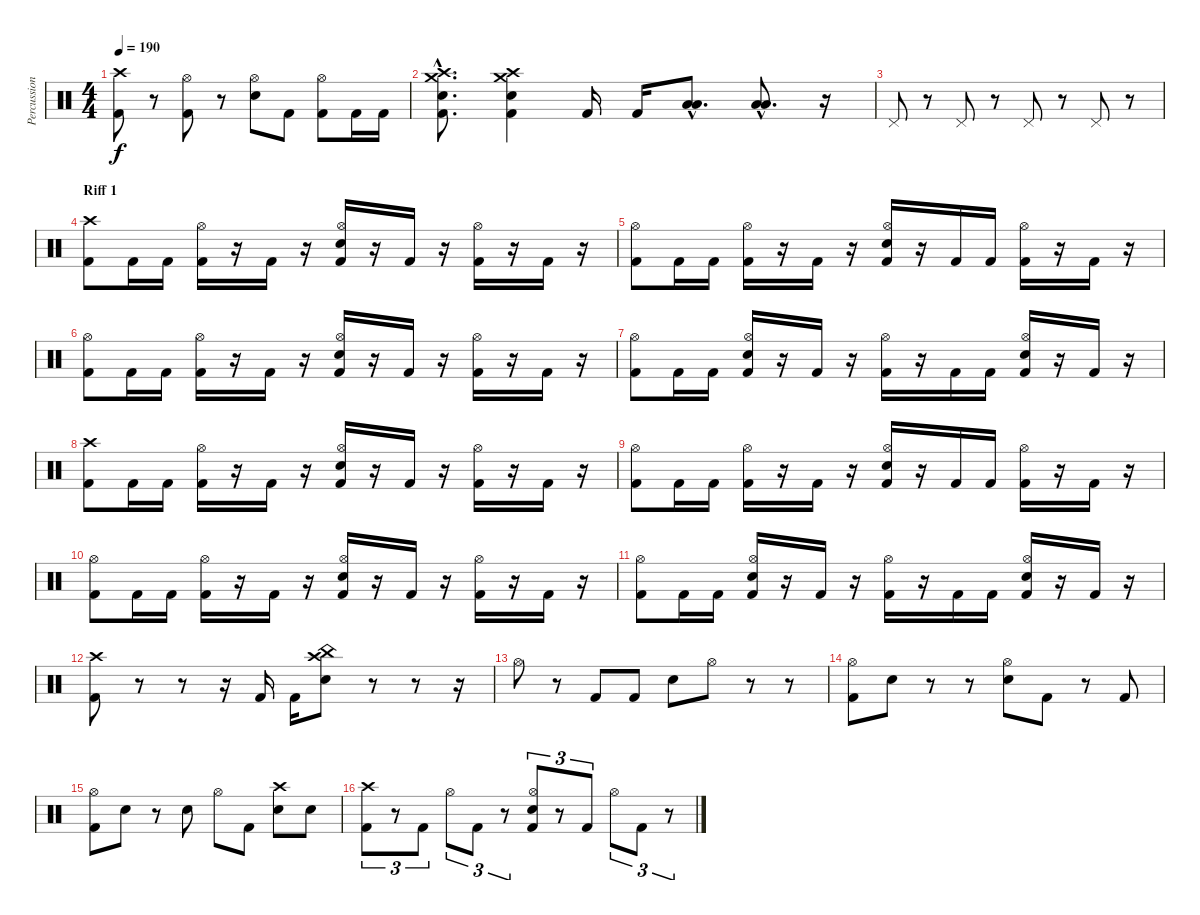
\track ("Percussion" "Percussion") {instrument percussion}
\staff {score}
\articulation defaults
\ts (4 4)
\tempo 190
\clef neutral
\ks c
("Crash high (hit)" "Kick (hit) 2").8{dy f} r.8 ("Hi-Hat (open)" "Kick (hit) 2").8 r.8 ("Hi-Hat (open)" "Electric Snare (hit)").8 "Kick (hit) 2".8 ("Hi-Hat (open)" "Kick (hit) 2").8 "Kick (hit) 2".16 "Kick (hit) 2".16 |
("Crash medium (hit)"{hac} "Crash high (hit)"{hac} "Electric Snare (hit)"{hac} "Kick (hit) 2"{hac}).8{d} ("Crash medium (hit)" "Crash high (hit)" "Electric Snare (hit)" "Kick (hit) 2").4 "Kick (hit) 2".16 "Kick (hit) 2".16 ("Low Tom (hit)"{hac} "Low Floor Tom (hit)"{hac}).8{d} ("Low Tom (hit)"{hac} "Low Floor Tom (hit)"{hac}).8{d} r.16 |
"Pedal Hi-Hat (hit)".8 r.8 "Pedal Hi-Hat (hit)".8 r.8 "Pedal Hi-Hat (hit)".8 r.8 "Pedal Hi-Hat (hit)".8 r.8 |
\section ("" "Riff 1")
("Crash high (hit)" "Kick (hit) 2").8 "Kick (hit) 2".16 "Kick (hit) 2".16 ("Hi-Hat (open)" "Kick (hit) 2").16 r.16 "Kick (hit) 2".16 r.16 ("Hi-Hat (open)" "Electric Snare (hit)" "Kick (hit) 2").16 r.16 "Kick (hit) 2".16 r.16 ("Hi-Hat (open)" "Kick (hit) 2").16 r.16 "Kick (hit) 2".16 r.16 |
("Hi-Hat (open)" "Kick (hit) 2").8 "Kick (hit) 2".16 "Kick (hit) 2".16 ("Hi-Hat (open)" "Kick (hit) 2").16 r.16 "Kick (hit) 2".16 r.16 ("Hi-Hat (open)" "Electric Snare (hit)" "Kick (hit) 2").16 r.16 "Kick (hit) 2".16 "Kick (hit) 2".16 ("Hi-Hat (open)" "Kick (hit) 2").16 r.16 "Kick (hit) 2".16 r.16 |
("Hi-Hat (open)" "Kick (hit) 2").8 "Kick (hit) 2".16 "Kick (hit) 2".16 ("Hi-Hat (open)" "Kick (hit) 2").16 r.16 "Kick (hit) 2".16 r.16 ("Hi-Hat (open)" "Electric Snare (hit)" "Kick (hit) 2").16 r.16 "Kick (hit) 2".16 r.16 ("Hi-Hat (open)" "Kick (hit) 2").16 r.16 "Kick (hit) 2".16 r.16 |
("Hi-Hat (open)" "Kick (hit) 2").8 "Kick (hit) 2".16 "Kick (hit) 2".16 ("Hi-Hat (open)" "Electric Snare (hit)" "Kick (hit) 2").16 r.16 "Kick (hit) 2".16 r.16 ("Hi-Hat (open)" "Kick (hit) 2").16 r.16 "Kick (hit) 2".16 "Kick (hit) 2".16 ("Hi-Hat (open)" "Electric Snare (hit)" "Kick (hit) 2").16 r.16 "Kick (hit) 2".16 r.16 |
("Crash high (hit)" "Kick (hit) 2").8 "Kick (hit) 2".16 "Kick (hit) 2".16 ("Hi-Hat (open)" "Kick (hit) 2").16 r.16 "Kick (hit) 2".16 r.16 ("Hi-Hat (open)" "Electric Snare (hit)" "Kick (hit) 2").16 r.16 "Kick (hit) 2".16 r.16 ("Hi-Hat (open)" "Kick (hit) 2").16 r.16 "Kick (hit) 2".16 r.16 |
("Hi-Hat (open)" "Kick (hit) 2").8 "Kick (hit) 2".16 "Kick (hit) 2".16 ("Hi-Hat (open)" "Kick (hit) 2").16 r.16 "Kick (hit) 2".16 r.16 ("Hi-Hat (open)" "Electric Snare (hit)" "Kick (hit) 2").16 r.16 "Kick (hit) 2".16 "Kick (hit) 2".16 ("Hi-Hat (open)" "Kick (hit) 2").16 r.16 "Kick (hit) 2".16 r.16 |
("Hi-Hat (open)" "Kick (hit) 2").8 "Kick (hit) 2".16 "Kick (hit) 2".16 ("Hi-Hat (open)" "Kick (hit) 2").16 r.16 "Kick (hit) 2".16 r.16 ("Hi-Hat (open)" "Electric Snare (hit)" "Kick (hit) 2").16 r.16 "Kick (hit) 2".16 r.16 ("Hi-Hat (open)" "Kick (hit) 2").16 r.16 "Kick (hit) 2".16 r.16 |
("Hi-Hat (open)" "Kick (hit) 2").8 "Kick (hit) 2".16 "Kick (hit) 2".16 ("Hi-Hat (open)" "Electric Snare (hit)" "Kick (hit) 2").16 r.16 "Kick (hit) 2".16 r.16 ("Hi-Hat (open)" "Kick (hit) 2").16 r.16 "Kick (hit) 2".16 "Kick (hit) 2".16 ("Hi-Hat (open)" "Electric Snare (hit)" "Kick (hit) 2").16 r.16 "Kick (hit) 2".16 r.16 |
("Crash high (hit)" "Kick (hit) 2").8 r.8 r.8 r.16 "Kick (hit) 2".16 "Kick (hit) 2".16 ("China (hit)" "Crash high (hit)" "Electric Snare (hit)").8 r.8 r.8 r.16 |
"Hi-Hat (open)".8 r.8 "Kick (hit) 2".8 "Kick (hit) 2".8 "Electric Snare (hit)".8 "Hi-Hat (open)".8 r.8 r.8 |
("Hi-Hat (open)" "Kick (hit) 2").8 "Electric Snare (hit)".8 r.8 r.8 ("Hi-Hat (open)" "Electric Snare (hit)").8 "Kick (hit) 2".8 r.8 "Kick (hit) 2".8 |
("Hi-Hat (open)" "Kick (hit) 2").8 "Electric Snare (hit)".8 r.8 "Electric Snare (hit)".8 "Hi-Hat (open)".8 "Kick (hit) 2".8 ("Crash high (hit)" "Electric Snare (hit)").8 "Electric Snare (hit)".8 |
("Crash high (hit)" "Kick (hit) 2").8{tu (3 2)} r.8{tu (3 2)} "Kick (hit) 2".8{tu (3 2)} "Hi-Hat (open)".8{tu (3 2)} "Kick (hit) 2".8{tu (3 2)} r.8{tu (3 2)} ("Hi-Hat (open)" "Electric Snare (hit)" "Kick (hit) 2").8{tu (3 2)} r.8{tu (3 2)} "Kick (hit) 2".8{tu (3 2)} "Hi-Hat (open)".8{tu (3 2)} "Kick (hit) 2".8{tu (3 2)} r.8{tu (3 2)}
